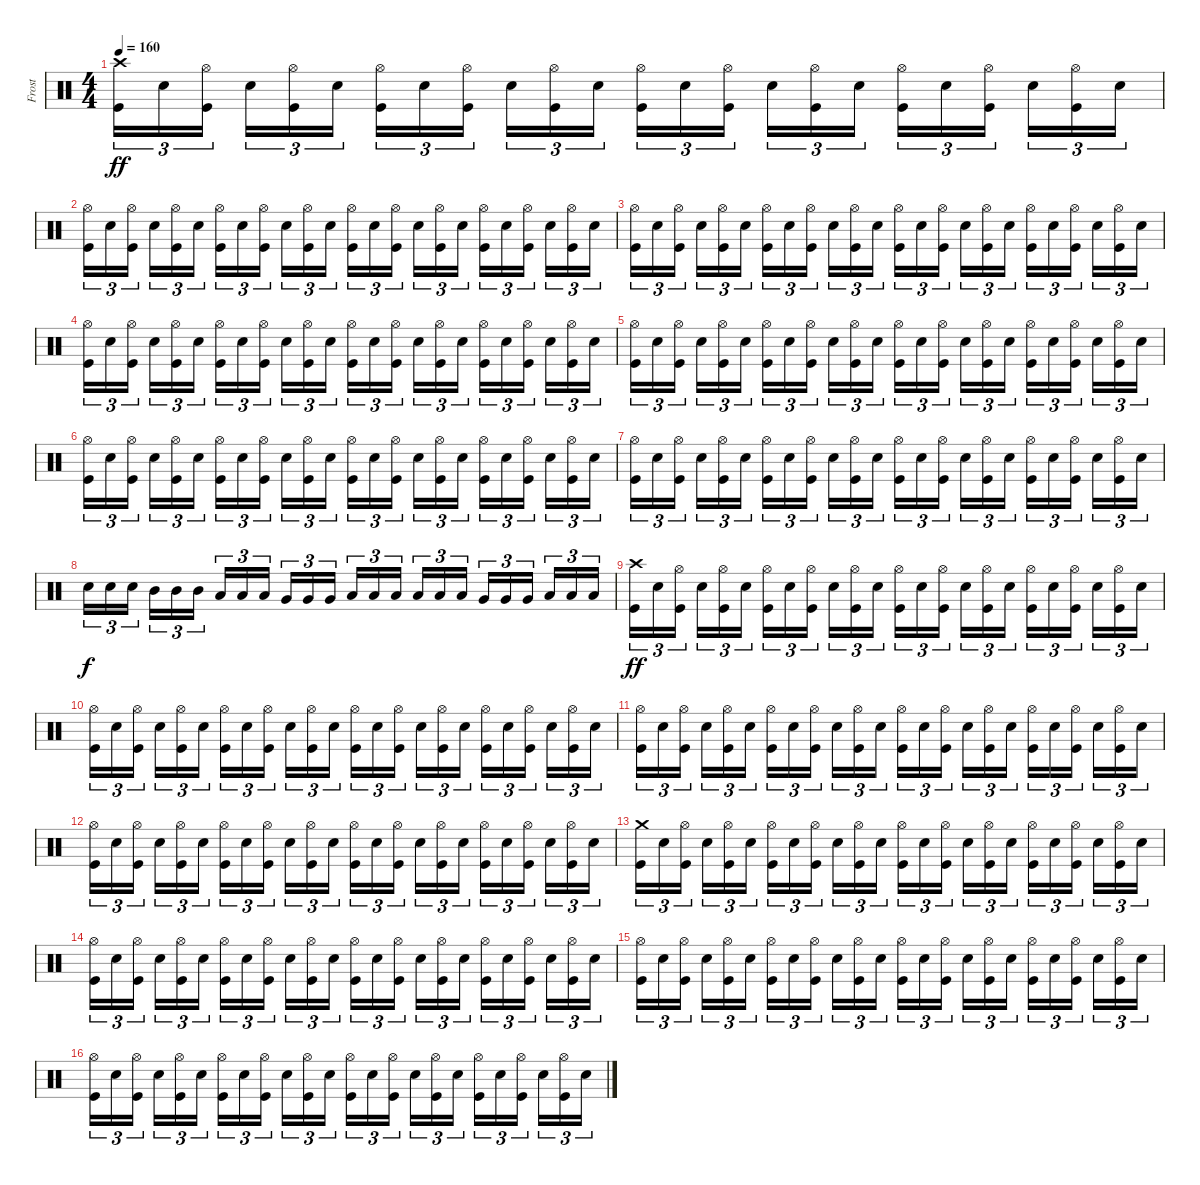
\track ("Frost" "Frost") {instrument percussion}
\staff {score}
\articulation defaults
\ts (4 4)
\tempo 160
\clef neutral
\ks c
("Crash high (hit)" "Kick (hit)").16{tu (3 2) dy ff} "Snare (hit) 2".16{tu (3 2)} ("Hi-Hat (open)" "Kick (hit)").16{tu (3 2) beam splitsecondary} "Snare (hit) 2".16{tu (3 2)} ("Hi-Hat (open)" "Kick (hit)").16{tu (3 2)} "Snare (hit) 2".16{tu (3 2)} ("Hi-Hat (open)" "Kick (hit)").16{tu (3 2)} "Snare (hit) 2".16{tu (3 2)} ("Hi-Hat (open)" "Kick (hit)").16{tu (3 2) beam splitsecondary} "Snare (hit) 2".16{tu (3 2)} ("Hi-Hat (open)" "Kick (hit)").16{tu (3 2)} "Snare (hit) 2".16{tu (3 2)} ("Hi-Hat (open)" "Kick (hit)").16{tu (3 2)} "Snare (hit) 2".16{tu (3 2)} ("Hi-Hat (open)" "Kick (hit)").16{tu (3 2) beam splitsecondary} "Snare (hit) 2".16{tu (3 2)} ("Hi-Hat (open)" "Kick (hit)").16{tu (3 2)} "Snare (hit) 2".16{tu (3 2)} ("Hi-Hat (open)" "Kick (hit)").16{tu (3 2)} "Snare (hit) 2".16{tu (3 2)} ("Hi-Hat (open)" "Kick (hit)").16{tu (3 2) beam splitsecondary} "Snare (hit) 2".16{tu (3 2)} ("Hi-Hat (open)" "Kick (hit)").16{tu (3 2)} "Snare (hit) 2".16{tu (3 2)} |
("Hi-Hat (open)" "Kick (hit)").16{tu (3 2)} "Snare (hit) 2".16{tu (3 2)} ("Hi-Hat (open)" "Kick (hit)").16{tu (3 2) beam splitsecondary} "Snare (hit) 2".16{tu (3 2)} ("Hi-Hat (open)" "Kick (hit)").16{tu (3 2)} "Snare (hit) 2".16{tu (3 2)} ("Hi-Hat (open)" "Kick (hit)").16{tu (3 2)} "Snare (hit) 2".16{tu (3 2)} ("Hi-Hat (open)" "Kick (hit)").16{tu (3 2) beam splitsecondary} "Snare (hit) 2".16{tu (3 2)} ("Hi-Hat (open)" "Kick (hit)").16{tu (3 2)} "Snare (hit) 2".16{tu (3 2)} ("Hi-Hat (open)" "Kick (hit)").16{tu (3 2)} "Snare (hit) 2".16{tu (3 2)} ("Hi-Hat (open)" "Kick (hit)").16{tu (3 2) beam splitsecondary} "Snare (hit) 2".16{tu (3 2)} ("Hi-Hat (open)" "Kick (hit)").16{tu (3 2)} "Snare (hit) 2".16{tu (3 2)} ("Hi-Hat (open)" "Kick (hit)").16{tu (3 2)} "Snare (hit) 2".16{tu (3 2)} ("Hi-Hat (open)" "Kick (hit)").16{tu (3 2) beam splitsecondary} "Snare (hit) 2".16{tu (3 2)} ("Hi-Hat (open)" "Kick (hit)").16{tu (3 2)} "Snare (hit) 2".16{tu (3 2)} |
("Hi-Hat (open)" "Kick (hit)").16{tu (3 2)} "Snare (hit) 2".16{tu (3 2)} ("Hi-Hat (open)" "Kick (hit)").16{tu (3 2) beam splitsecondary} "Snare (hit) 2".16{tu (3 2)} ("Hi-Hat (open)" "Kick (hit)").16{tu (3 2)} "Snare (hit) 2".16{tu (3 2)} ("Hi-Hat (open)" "Kick (hit)").16{tu (3 2)} "Snare (hit) 2".16{tu (3 2)} ("Hi-Hat (open)" "Kick (hit)").16{tu (3 2) beam splitsecondary} "Snare (hit) 2".16{tu (3 2)} ("Hi-Hat (open)" "Kick (hit)").16{tu (3 2)} "Snare (hit) 2".16{tu (3 2)} ("Hi-Hat (open)" "Kick (hit)").16{tu (3 2)} "Snare (hit) 2".16{tu (3 2)} ("Hi-Hat (open)" "Kick (hit)").16{tu (3 2) beam splitsecondary} "Snare (hit) 2".16{tu (3 2)} ("Hi-Hat (open)" "Kick (hit)").16{tu (3 2)} "Snare (hit) 2".16{tu (3 2)} ("Hi-Hat (open)" "Kick (hit)").16{tu (3 2)} "Snare (hit) 2".16{tu (3 2)} ("Hi-Hat (open)" "Kick (hit)").16{tu (3 2) beam splitsecondary} "Snare (hit) 2".16{tu (3 2)} ("Hi-Hat (open)" "Kick (hit)").16{tu (3 2)} "Snare (hit) 2".16{tu (3 2)} |
("Hi-Hat (open)" "Kick (hit)").16{tu (3 2)} "Snare (hit) 2".16{tu (3 2)} ("Hi-Hat (open)" "Kick (hit)").16{tu (3 2) beam splitsecondary} "Snare (hit) 2".16{tu (3 2)} ("Hi-Hat (open)" "Kick (hit)").16{tu (3 2)} "Snare (hit) 2".16{tu (3 2)} ("Hi-Hat (open)" "Kick (hit)").16{tu (3 2)} "Snare (hit) 2".16{tu (3 2)} ("Hi-Hat (open)" "Kick (hit)").16{tu (3 2) beam splitsecondary} "Snare (hit) 2".16{tu (3 2)} ("Hi-Hat (open)" "Kick (hit)").16{tu (3 2)} "Snare (hit) 2".16{tu (3 2)} ("Hi-Hat (open)" "Kick (hit)").16{tu (3 2)} "Snare (hit) 2".16{tu (3 2)} ("Hi-Hat (open)" "Kick (hit)").16{tu (3 2) beam splitsecondary} "Snare (hit) 2".16{tu (3 2)} ("Hi-Hat (open)" "Kick (hit)").16{tu (3 2)} "Snare (hit) 2".16{tu (3 2)} ("Hi-Hat (open)" "Kick (hit)").16{tu (3 2)} "Snare (hit) 2".16{tu (3 2)} ("Hi-Hat (open)" "Kick (hit)").16{tu (3 2) beam splitsecondary} "Snare (hit) 2".16{tu (3 2)} ("Hi-Hat (open)" "Kick (hit)").16{tu (3 2)} "Snare (hit) 2".16{tu (3 2)} |
("Hi-Hat (open)" "Kick (hit)").16{tu (3 2)} "Snare (hit) 2".16{tu (3 2)} ("Hi-Hat (open)" "Kick (hit)").16{tu (3 2) beam splitsecondary} "Snare (hit) 2".16{tu (3 2)} ("Hi-Hat (open)" "Kick (hit)").16{tu (3 2)} "Snare (hit) 2".16{tu (3 2)} ("Hi-Hat (open)" "Kick (hit)").16{tu (3 2)} "Snare (hit) 2".16{tu (3 2)} ("Hi-Hat (open)" "Kick (hit)").16{tu (3 2) beam splitsecondary} "Snare (hit) 2".16{tu (3 2)} ("Hi-Hat (open)" "Kick (hit)").16{tu (3 2)} "Snare (hit) 2".16{tu (3 2)} ("Hi-Hat (open)" "Kick (hit)").16{tu (3 2)} "Snare (hit) 2".16{tu (3 2)} ("Hi-Hat (open)" "Kick (hit)").16{tu (3 2) beam splitsecondary} "Snare (hit) 2".16{tu (3 2)} ("Hi-Hat (open)" "Kick (hit)").16{tu (3 2)} "Snare (hit) 2".16{tu (3 2)} ("Hi-Hat (open)" "Kick (hit)").16{tu (3 2)} "Snare (hit) 2".16{tu (3 2)} ("Hi-Hat (open)" "Kick (hit)").16{tu (3 2) beam splitsecondary} "Snare (hit) 2".16{tu (3 2)} ("Hi-Hat (open)" "Kick (hit)").16{tu (3 2)} "Snare (hit) 2".16{tu (3 2)} |
("Hi-Hat (open)" "Kick (hit)").16{tu (3 2)} "Snare (hit) 2".16{tu (3 2)} ("Hi-Hat (open)" "Kick (hit)").16{tu (3 2) beam splitsecondary} "Snare (hit) 2".16{tu (3 2)} ("Hi-Hat (open)" "Kick (hit)").16{tu (3 2)} "Snare (hit) 2".16{tu (3 2)} ("Hi-Hat (open)" "Kick (hit)").16{tu (3 2)} "Snare (hit) 2".16{tu (3 2)} ("Hi-Hat (open)" "Kick (hit)").16{tu (3 2) beam splitsecondary} "Snare (hit) 2".16{tu (3 2)} ("Hi-Hat (open)" "Kick (hit)").16{tu (3 2)} "Snare (hit) 2".16{tu (3 2)} ("Hi-Hat (open)" "Kick (hit)").16{tu (3 2)} "Snare (hit) 2".16{tu (3 2)} ("Hi-Hat (open)" "Kick (hit)").16{tu (3 2) beam splitsecondary} "Snare (hit) 2".16{tu (3 2)} ("Hi-Hat (open)" "Kick (hit)").16{tu (3 2)} "Snare (hit) 2".16{tu (3 2)} ("Hi-Hat (open)" "Kick (hit)").16{tu (3 2)} "Snare (hit) 2".16{tu (3 2)} ("Hi-Hat (open)" "Kick (hit)").16{tu (3 2) beam splitsecondary} "Snare (hit) 2".16{tu (3 2)} ("Hi-Hat (open)" "Kick (hit)").16{tu (3 2)} "Snare (hit) 2".16{tu (3 2)} |
("Hi-Hat (open)" "Kick (hit)").16{tu (3 2)} "Snare (hit) 2".16{tu (3 2)} ("Hi-Hat (open)" "Kick (hit)").16{tu (3 2) beam splitsecondary} "Snare (hit) 2".16{tu (3 2)} ("Hi-Hat (open)" "Kick (hit)").16{tu (3 2)} "Snare (hit) 2".16{tu (3 2)} ("Hi-Hat (open)" "Kick (hit)").16{tu (3 2)} "Snare (hit) 2".16{tu (3 2)} ("Hi-Hat (open)" "Kick (hit)").16{tu (3 2) beam splitsecondary} "Snare (hit) 2".16{tu (3 2)} ("Hi-Hat (open)" "Kick (hit)").16{tu (3 2)} "Snare (hit) 2".16{tu (3 2)} ("Hi-Hat (open)" "Kick (hit)").16{tu (3 2)} "Snare (hit) 2".16{tu (3 2)} ("Hi-Hat (open)" "Kick (hit)").16{tu (3 2) beam splitsecondary} "Snare (hit) 2".16{tu (3 2)} ("Hi-Hat (open)" "Kick (hit)").16{tu (3 2)} "Snare (hit) 2".16{tu (3 2)} ("Hi-Hat (open)" "Kick (hit)").16{tu (3 2)} "Snare (hit) 2".16{tu (3 2)} ("Hi-Hat (open)" "Kick (hit)").16{tu (3 2) beam splitsecondary} "Snare (hit) 2".16{tu (3 2)} ("Hi-Hat (open)" "Kick (hit)").16{tu (3 2)} "Snare (hit) 2".16{tu (3 2)} |
"Snare (hit) 2".16{tu (3 2) dy f} "Snare (hit) 2".16{tu (3 2)} "Snare (hit) 2".16{tu (3 2) beam splitsecondary} "Mid Tom (hit)".16{tu (3 2)} "Mid Tom (hit)".16{tu (3 2)} "Mid Tom (hit)".16{tu (3 2)} "Low Tom (hit)".16{tu (3 2)} "Low Tom (hit)".16{tu (3 2)} "Low Tom (hit)".16{tu (3 2) beam splitsecondary} "Very Low Tom (hit)".16{tu (3 2)} "Very Low Tom (hit)".16{tu (3 2)} "Very Low Tom (hit)".16{tu (3 2)} "Low Floor Tom (hit)".16{tu (3 2)} "Low Floor Tom (hit)".16{tu (3 2)} "Low Floor Tom (hit)".16{tu (3 2) beam splitsecondary} "Low Floor Tom (hit)".16{tu (3 2)} "Low Floor Tom (hit)".16{tu (3 2)} "Low Floor Tom (hit)".16{tu (3 2)} "Very Low Tom (hit)".16{tu (3 2)} "Very Low Tom (hit)".16{tu (3 2)} "Very Low Tom (hit)".16{tu (3 2) beam splitsecondary} "Low Floor Tom (hit)".16{tu (3 2)} "Low Floor Tom (hit)".16{tu (3 2)} "Low Floor Tom (hit)".16{tu (3 2)} |
("Crash high (hit)" "Kick (hit)").16{tu (3 2) dy ff} "Snare (hit) 2".16{tu (3 2)} ("Hi-Hat (open)" "Kick (hit)").16{tu (3 2) beam splitsecondary} "Snare (hit) 2".16{tu (3 2)} ("Hi-Hat (open)" "Kick (hit)").16{tu (3 2)} "Snare (hit) 2".16{tu (3 2)} ("Hi-Hat (open)" "Kick (hit)").16{tu (3 2)} "Snare (hit) 2".16{tu (3 2)} ("Hi-Hat (open)" "Kick (hit)").16{tu (3 2) beam splitsecondary} "Snare (hit) 2".16{tu (3 2)} ("Hi-Hat (open)" "Kick (hit)").16{tu (3 2)} "Snare (hit) 2".16{tu (3 2)} ("Hi-Hat (open)" "Kick (hit)").16{tu (3 2)} "Snare (hit) 2".16{tu (3 2)} ("Hi-Hat (open)" "Kick (hit)").16{tu (3 2) beam splitsecondary} "Snare (hit) 2".16{tu (3 2)} ("Hi-Hat (open)" "Kick (hit)").16{tu (3 2)} "Snare (hit) 2".16{tu (3 2)} ("Hi-Hat (open)" "Kick (hit)").16{tu (3 2)} "Snare (hit) 2".16{tu (3 2)} ("Hi-Hat (open)" "Kick (hit)").16{tu (3 2) beam splitsecondary} "Snare (hit) 2".16{tu (3 2)} ("Hi-Hat (open)" "Kick (hit)").16{tu (3 2)} "Snare (hit) 2".16{tu (3 2)} |
("Hi-Hat (open)" "Kick (hit)").16{tu (3 2)} "Snare (hit) 2".16{tu (3 2)} ("Hi-Hat (open)" "Kick (hit)").16{tu (3 2) beam splitsecondary} "Snare (hit) 2".16{tu (3 2)} ("Hi-Hat (open)" "Kick (hit)").16{tu (3 2)} "Snare (hit) 2".16{tu (3 2)} ("Hi-Hat (open)" "Kick (hit)").16{tu (3 2)} "Snare (hit) 2".16{tu (3 2)} ("Hi-Hat (open)" "Kick (hit)").16{tu (3 2) beam splitsecondary} "Snare (hit) 2".16{tu (3 2)} ("Hi-Hat (open)" "Kick (hit)").16{tu (3 2)} "Snare (hit) 2".16{tu (3 2)} ("Hi-Hat (open)" "Kick (hit)").16{tu (3 2)} "Snare (hit) 2".16{tu (3 2)} ("Hi-Hat (open)" "Kick (hit)").16{tu (3 2) beam splitsecondary} "Snare (hit) 2".16{tu (3 2)} ("Hi-Hat (open)" "Kick (hit)").16{tu (3 2)} "Snare (hit) 2".16{tu (3 2)} ("Hi-Hat (open)" "Kick (hit)").16{tu (3 2)} "Snare (hit) 2".16{tu (3 2)} ("Hi-Hat (open)" "Kick (hit)").16{tu (3 2) beam splitsecondary} "Snare (hit) 2".16{tu (3 2)} ("Hi-Hat (open)" "Kick (hit)").16{tu (3 2)} "Snare (hit) 2".16{tu (3 2)} |
("Hi-Hat (open)" "Kick (hit)").16{tu (3 2)} "Snare (hit) 2".16{tu (3 2)} ("Hi-Hat (open)" "Kick (hit)").16{tu (3 2) beam splitsecondary} "Snare (hit) 2".16{tu (3 2)} ("Hi-Hat (open)" "Kick (hit)").16{tu (3 2)} "Snare (hit) 2".16{tu (3 2)} ("Hi-Hat (open)" "Kick (hit)").16{tu (3 2)} "Snare (hit) 2".16{tu (3 2)} ("Hi-Hat (open)" "Kick (hit)").16{tu (3 2) beam splitsecondary} "Snare (hit) 2".16{tu (3 2)} ("Hi-Hat (open)" "Kick (hit)").16{tu (3 2)} "Snare (hit) 2".16{tu (3 2)} ("Hi-Hat (open)" "Kick (hit)").16{tu (3 2)} "Snare (hit) 2".16{tu (3 2)} ("Hi-Hat (open)" "Kick (hit)").16{tu (3 2) beam splitsecondary} "Snare (hit) 2".16{tu (3 2)} ("Hi-Hat (open)" "Kick (hit)").16{tu (3 2)} "Snare (hit) 2".16{tu (3 2)} ("Hi-Hat (open)" "Kick (hit)").16{tu (3 2)} "Snare (hit) 2".16{tu (3 2)} ("Hi-Hat (open)" "Kick (hit)").16{tu (3 2) beam splitsecondary} "Snare (hit) 2".16{tu (3 2)} ("Hi-Hat (open)" "Kick (hit)").16{tu (3 2)} "Snare (hit) 2".16{tu (3 2)} |
("Hi-Hat (open)" "Kick (hit)").16{tu (3 2)} "Snare (hit) 2".16{tu (3 2)} ("Hi-Hat (open)" "Kick (hit)").16{tu (3 2) beam splitsecondary} "Snare (hit) 2".16{tu (3 2)} ("Hi-Hat (open)" "Kick (hit)").16{tu (3 2)} "Snare (hit) 2".16{tu (3 2)} ("Hi-Hat (open)" "Kick (hit)").16{tu (3 2)} "Snare (hit) 2".16{tu (3 2)} ("Hi-Hat (open)" "Kick (hit)").16{tu (3 2) beam splitsecondary} "Snare (hit) 2".16{tu (3 2)} ("Hi-Hat (open)" "Kick (hit)").16{tu (3 2)} "Snare (hit) 2".16{tu (3 2)} ("Hi-Hat (open)" "Kick (hit)").16{tu (3 2)} "Snare (hit) 2".16{tu (3 2)} ("Hi-Hat (open)" "Kick (hit)").16{tu (3 2) beam splitsecondary} "Snare (hit) 2".16{tu (3 2)} ("Hi-Hat (open)" "Kick (hit)").16{tu (3 2)} "Snare (hit) 2".16{tu (3 2)} ("Hi-Hat (open)" "Kick (hit)").16{tu (3 2)} "Snare (hit) 2".16{tu (3 2)} ("Hi-Hat (open)" "Kick (hit)").16{tu (3 2) beam splitsecondary} "Snare (hit) 2".16{tu (3 2)} ("Hi-Hat (open)" "Kick (hit)").16{tu (3 2)} "Snare (hit) 2".16{tu (3 2)} |
("Crash medium (hit)" "Kick (hit)").16{tu (3 2)} "Snare (hit) 2".16{tu (3 2)} ("Hi-Hat (open)" "Kick (hit)").16{tu (3 2) beam splitsecondary} "Snare (hit) 2".16{tu (3 2)} ("Hi-Hat (open)" "Kick (hit)").16{tu (3 2)} "Snare (hit) 2".16{tu (3 2)} ("Hi-Hat (open)" "Kick (hit)").16{tu (3 2)} "Snare (hit) 2".16{tu (3 2)} ("Hi-Hat (open)" "Kick (hit)").16{tu (3 2) beam splitsecondary} "Snare (hit) 2".16{tu (3 2)} ("Hi-Hat (open)" "Kick (hit)").16{tu (3 2)} "Snare (hit) 2".16{tu (3 2)} ("Hi-Hat (open)" "Kick (hit)").16{tu (3 2)} "Snare (hit) 2".16{tu (3 2)} ("Hi-Hat (open)" "Kick (hit)").16{tu (3 2) beam splitsecondary} "Snare (hit) 2".16{tu (3 2)} ("Hi-Hat (open)" "Kick (hit)").16{tu (3 2)} "Snare (hit) 2".16{tu (3 2)} ("Hi-Hat (open)" "Kick (hit)").16{tu (3 2)} "Snare (hit) 2".16{tu (3 2)} ("Hi-Hat (open)" "Kick (hit)").16{tu (3 2) beam splitsecondary} "Snare (hit) 2".16{tu (3 2)} ("Hi-Hat (open)" "Kick (hit)").16{tu (3 2)} "Snare (hit) 2".16{tu (3 2)} |
("Hi-Hat (open)" "Kick (hit)").16{tu (3 2)} "Snare (hit) 2".16{tu (3 2)} ("Hi-Hat (open)" "Kick (hit)").16{tu (3 2) beam splitsecondary} "Snare (hit) 2".16{tu (3 2)} ("Hi-Hat (open)" "Kick (hit)").16{tu (3 2)} "Snare (hit) 2".16{tu (3 2)} ("Hi-Hat (open)" "Kick (hit)").16{tu (3 2)} "Snare (hit) 2".16{tu (3 2)} ("Hi-Hat (open)" "Kick (hit)").16{tu (3 2) beam splitsecondary} "Snare (hit) 2".16{tu (3 2)} ("Hi-Hat (open)" "Kick (hit)").16{tu (3 2)} "Snare (hit) 2".16{tu (3 2)} ("Hi-Hat (open)" "Kick (hit)").16{tu (3 2)} "Snare (hit) 2".16{tu (3 2)} ("Hi-Hat (open)" "Kick (hit)").16{tu (3 2) beam splitsecondary} "Snare (hit) 2".16{tu (3 2)} ("Hi-Hat (open)" "Kick (hit)").16{tu (3 2)} "Snare (hit) 2".16{tu (3 2)} ("Hi-Hat (open)" "Kick (hit)").16{tu (3 2)} "Snare (hit) 2".16{tu (3 2)} ("Hi-Hat (open)" "Kick (hit)").16{tu (3 2) beam splitsecondary} "Snare (hit) 2".16{tu (3 2)} ("Hi-Hat (open)" "Kick (hit)").16{tu (3 2)} "Snare (hit) 2".16{tu (3 2)} |
("Hi-Hat (open)" "Kick (hit)").16{tu (3 2)} "Snare (hit) 2".16{tu (3 2)} ("Hi-Hat (open)" "Kick (hit)").16{tu (3 2) beam splitsecondary} "Snare (hit) 2".16{tu (3 2)} ("Hi-Hat (open)" "Kick (hit)").16{tu (3 2)} "Snare (hit) 2".16{tu (3 2)} ("Hi-Hat (open)" "Kick (hit)").16{tu (3 2)} "Snare (hit) 2".16{tu (3 2)} ("Hi-Hat (open)" "Kick (hit)").16{tu (3 2) beam splitsecondary} "Snare (hit) 2".16{tu (3 2)} ("Hi-Hat (open)" "Kick (hit)").16{tu (3 2)} "Snare (hit) 2".16{tu (3 2)} ("Hi-Hat (open)" "Kick (hit)").16{tu (3 2)} "Snare (hit) 2".16{tu (3 2)} ("Hi-Hat (open)" "Kick (hit)").16{tu (3 2) beam splitsecondary} "Snare (hit) 2".16{tu (3 2)} ("Hi-Hat (open)" "Kick (hit)").16{tu (3 2)} "Snare (hit) 2".16{tu (3 2)} ("Hi-Hat (open)" "Kick (hit)").16{tu (3 2)} "Snare (hit) 2".16{tu (3 2)} ("Hi-Hat (open)" "Kick (hit)").16{tu (3 2) beam splitsecondary} "Snare (hit) 2".16{tu (3 2)} ("Hi-Hat (open)" "Kick (hit)").16{tu (3 2)} "Snare (hit) 2".16{tu (3 2)} |
("Hi-Hat (open)" "Kick (hit)").16{tu (3 2)} "Snare (hit) 2".16{tu (3 2)} ("Hi-Hat (open)" "Kick (hit)").16{tu (3 2) beam splitsecondary} "Snare (hit) 2".16{tu (3 2)} ("Hi-Hat (open)" "Kick (hit)").16{tu (3 2)} "Snare (hit) 2".16{tu (3 2)} ("Hi-Hat (open)" "Kick (hit)").16{tu (3 2)} "Snare (hit) 2".16{tu (3 2)} ("Hi-Hat (open)" "Kick (hit)").16{tu (3 2) beam splitsecondary} "Snare (hit) 2".16{tu (3 2)} ("Hi-Hat (open)" "Kick (hit)").16{tu (3 2)} "Snare (hit) 2".16{tu (3 2)} ("Hi-Hat (open)" "Kick (hit)").16{tu (3 2)} "Snare (hit) 2".16{tu (3 2)} ("Hi-Hat (open)" "Kick (hit)").16{tu (3 2) beam splitsecondary} "Snare (hit) 2".16{tu (3 2)} ("Hi-Hat (open)" "Kick (hit)").16{tu (3 2)} "Snare (hit) 2".16{tu (3 2)} ("Hi-Hat (open)" "Kick (hit)").16{tu (3 2)} "Snare (hit) 2".16{tu (3 2)} ("Hi-Hat (open)" "Kick (hit)").16{tu (3 2) beam splitsecondary} "Snare (hit) 2".16{tu (3 2)} ("Hi-Hat (open)" "Kick (hit)").16{tu (3 2)} "Snare (hit) 2".16{tu (3 2)}
